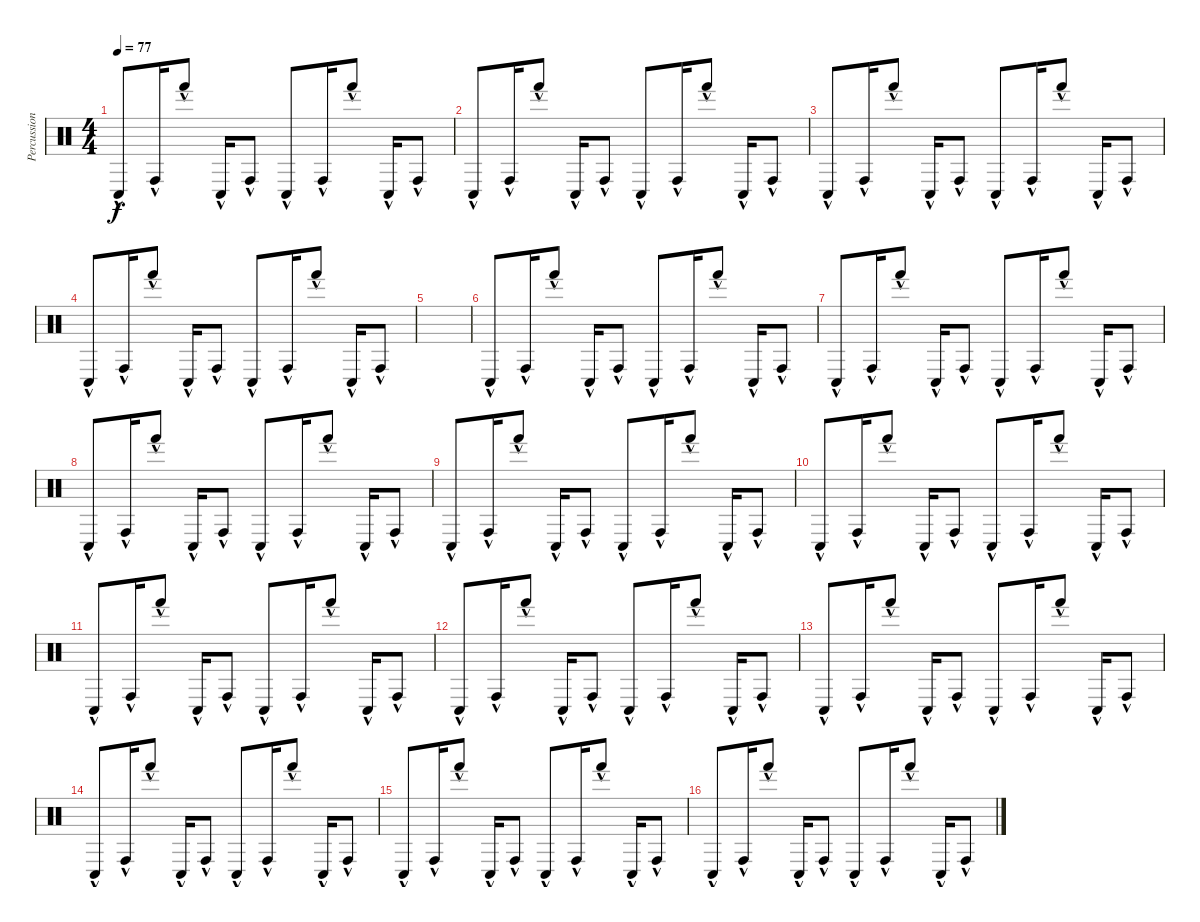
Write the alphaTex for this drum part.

\track ("Percussion" "Percussion") {instrument percussion}
\staff {score}
\articulation defaults
\ts (4 4)
\tempo 77
\clef neutral
\ks c "Conga low (hit)"{hac}.8{dy f} "Conga high (hit)"{hac}.16 "Hand (hit)"{hac}.8 "Conga low (hit)"{hac}.16 "Conga high (hit)"{hac}.8 "Conga low (hit)"{hac}.8 "Conga high (hit)"{hac}.16 "Hand (hit)"{hac}.8 "Conga low (hit)"{hac}.16 "Conga high (hit)"{hac}.8
|
"Conga low (hit)"{hac}.8 "Conga high (hit)"{hac}.16 "Hand (hit)"{hac}.8 "Conga low (hit)"{hac}.16 "Conga high (hit)"{hac}.8 "Conga low (hit)"{hac}.8 "Conga high (hit)"{hac}.16 "Hand (hit)"{hac}.8 "Conga low (hit)"{hac}.16 "Conga high (hit)"{hac}.8 |
"Conga low (hit)"{hac}.8 "Conga high (hit)"{hac}.16 "Hand (hit)"{hac}.8 "Conga low (hit)"{hac}.16 "Conga high (hit)"{hac}.8 "Conga low (hit)"{hac}.8 "Conga high (hit)"{hac}.16 "Hand (hit)"{hac}.8 "Conga low (hit)"{hac}.16 "Conga high (hit)"{hac}.8 |
"Conga low (hit)"{hac}.8 "Conga high (hit)"{hac}.16 "Hand (hit)"{hac}.8 "Conga low (hit)"{hac}.16 "Conga high (hit)"{hac}.8 "Conga low (hit)"{hac}.8 "Conga high (hit)"{hac}.16 "Hand (hit)"{hac}.8 "Conga low (hit)"{hac}.16 "Conga high (hit)"{hac}.8 |
|
"Conga low (hit)"{hac}.8 "Conga high (hit)"{hac}.16 "Hand (hit)"{hac}.8 "Conga low (hit)"{hac}.16 "Conga high (hit)"{hac}.8 "Conga low (hit)"{hac}.8 "Conga high (hit)"{hac}.16 "Hand (hit)"{hac}.8 "Conga low (hit)"{hac}.16 "Conga high (hit)"{hac}.8 |
"Conga low (hit)"{hac}.8 "Conga high (hit)"{hac}.16 "Hand (hit)"{hac}.8 "Conga low (hit)"{hac}.16 "Conga high (hit)"{hac}.8 "Conga low (hit)"{hac}.8 "Conga high (hit)"{hac}.16 "Hand (hit)"{hac}.8 "Conga low (hit)"{hac}.16 "Conga high (hit)"{hac}.8 |
"Conga low (hit)"{hac}.8 "Conga high (hit)"{hac}.16 "Hand (hit)"{hac}.8 "Conga low (hit)"{hac}.16 "Conga high (hit)"{hac}.8 "Conga low (hit)"{hac}.8 "Conga high (hit)"{hac}.16 "Hand (hit)"{hac}.8 "Conga low (hit)"{hac}.16 "Conga high (hit)"{hac}.8 |
"Conga low (hit)"{hac}.8 "Conga high (hit)"{hac}.16 "Hand (hit)"{hac}.8 "Conga low (hit)"{hac}.16 "Conga high (hit)"{hac}.8 "Conga low (hit)"{hac}.8 "Conga high (hit)"{hac}.16 "Hand (hit)"{hac}.8 "Conga low (hit)"{hac}.16 "Conga high (hit)"{hac}.8 |
"Conga low (hit)"{hac}.8 "Conga high (hit)"{hac}.16 "Hand (hit)"{hac}.8 "Conga low (hit)"{hac}.16 "Conga high (hit)"{hac}.8 "Conga low (hit)"{hac}.8 "Conga high (hit)"{hac}.16 "Hand (hit)"{hac}.8 "Conga low (hit)"{hac}.16 "Conga high (hit)"{hac}.8 |
"Conga low (hit)"{hac}.8 "Conga high (hit)"{hac}.16 "Hand (hit)"{hac}.8 "Conga low (hit)"{hac}.16 "Conga high (hit)"{hac}.8 "Conga low (hit)"{hac}.8 "Conga high (hit)"{hac}.16 "Hand (hit)"{hac}.8 "Conga low (hit)"{hac}.16 "Conga high (hit)"{hac}.8 |
"Conga low (hit)"{hac}.8 "Conga high (hit)"{hac}.16 "Hand (hit)"{hac}.8 "Conga low (hit)"{hac}.16 "Conga high (hit)"{hac}.8 "Conga low (hit)"{hac}.8 "Conga high (hit)"{hac}.16 "Hand (hit)"{hac}.8 "Conga low (hit)"{hac}.16 "Conga high (hit)"{hac}.8 |
"Conga low (hit)"{hac}.8 "Conga high (hit)"{hac}.16 "Hand (hit)"{hac}.8 "Conga low (hit)"{hac}.16 "Conga high (hit)"{hac}.8 "Conga low (hit)"{hac}.8 "Conga high (hit)"{hac}.16 "Hand (hit)"{hac}.8 "Conga low (hit)"{hac}.16 "Conga high (hit)"{hac}.8 |
"Conga low (hit)"{hac}.8 "Conga high (hit)"{hac}.16 "Hand (hit)"{hac}.8 "Conga low (hit)"{hac}.16 "Conga high (hit)"{hac}.8 "Conga low (hit)"{hac}.8 "Conga high (hit)"{hac}.16 "Hand (hit)"{hac}.8 "Conga low (hit)"{hac}.16 "Conga high (hit)"{hac}.8 |
"Conga low (hit)"{hac}.8 "Conga high (hit)"{hac}.16 "Hand (hit)"{hac}.8 "Conga low (hit)"{hac}.16 "Conga high (hit)"{hac}.8 "Conga low (hit)"{hac}.8 "Conga high (hit)"{hac}.16 "Hand (hit)"{hac}.8 "Conga low (hit)"{hac}.16 "Conga high (hit)"{hac}.8 |
"Conga low (hit)"{hac}.8 "Conga high (hit)"{hac}.16 "Hand (hit)"{hac}.8 "Conga low (hit)"{hac}.16 "Conga high (hit)"{hac}.8 "Conga low (hit)"{hac}.8 "Conga high (hit)"{hac}.16 "Hand (hit)"{hac}.8 "Conga low (hit)"{hac}.16 "Conga high (hit)"{hac}.8
